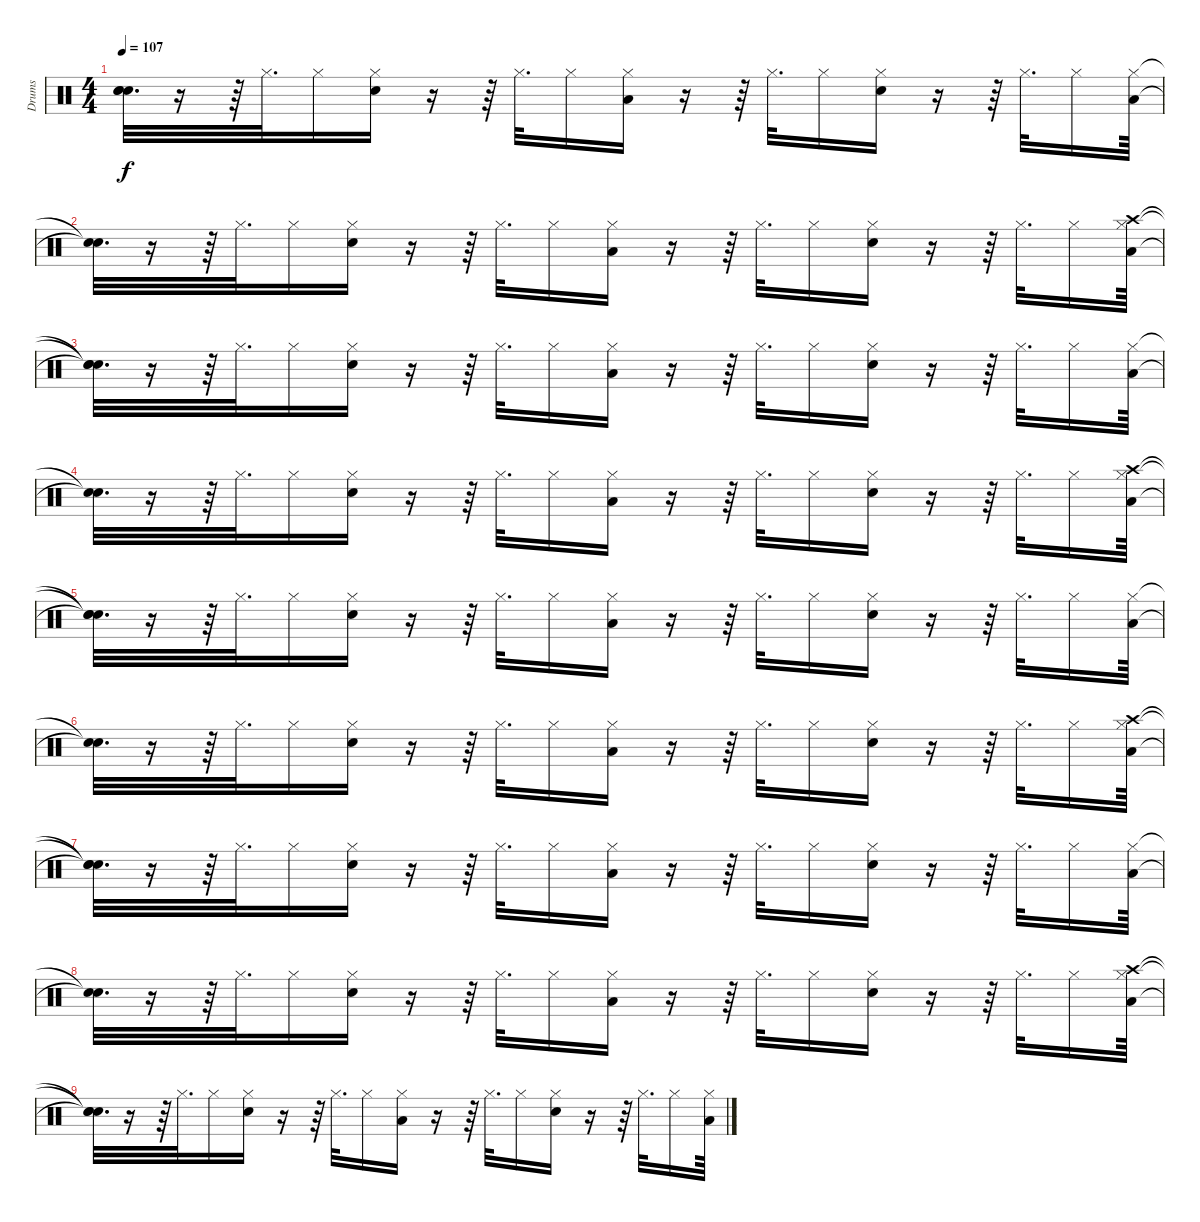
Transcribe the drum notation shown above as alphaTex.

\track ("Drums" "Drums") {instrument percussion}
\staff {score}
\articulation defaults
\ts (4 4)
\tempo 107
\clef neutral
\ks c
("Snare (hit)"{t} "Snare (hit)"{t} "Snare (hit)"{t}).32{d dy f} r.16 r.64 "Hi-Hat (closed)".32{d} "Hi-Hat (closed)".16 ("Hi-Hat (closed)" "Snare (hit) 2").16 r.16 r.64 "Hi-Hat (closed)".32{d} "Hi-Hat (closed)".16 ("Hi-Hat (closed)" "Low Tom (hit)").16 r.16 r.64 "Hi-Hat (closed)".32{d} "Hi-Hat (closed)".16 ("Hi-Hat (closed)" "Snare (hit) 2").16 r.16 r.64 "Hi-Hat (closed)".32{d} "Hi-Hat (closed)".16 ("Hi-Hat (closed)" "Low Tom (hit)").64 |
("Snare (hit)"{t} "Snare (hit)"{t}).32{d} r.16 r.64 "Hi-Hat (closed)".32{d} "Hi-Hat (closed)".16 ("Hi-Hat (closed)" "Snare (hit) 2").16 r.16 r.64 "Hi-Hat (closed)".32{d} "Hi-Hat (closed)".16 ("Hi-Hat (closed)" "Low Tom (hit)").16 r.16 r.64 "Hi-Hat (closed)".32{d} "Hi-Hat (closed)".16 ("Hi-Hat (closed)" "Snare (hit) 2").16 r.16 r.64 "Hi-Hat (closed)".32{d} "Hi-Hat (closed)".16 ("Hi-Hat (closed)" "Crash high (hit)" "Low Tom (hit)").64 |
("Snare (hit)"{t} "Snare (hit)"{t} "Snare (hit)"{t}).32{d} r.16 r.64 "Hi-Hat (closed)".32{d} "Hi-Hat (closed)".16 ("Hi-Hat (closed)" "Snare (hit) 2").16 r.16 r.64 "Hi-Hat (closed)".32{d} "Hi-Hat (closed)".16 ("Hi-Hat (closed)" "Low Tom (hit)").16 r.16 r.64 "Hi-Hat (closed)".32{d} "Hi-Hat (closed)".16 ("Hi-Hat (closed)" "Snare (hit) 2").16 r.16 r.64 "Hi-Hat (closed)".32{d} "Hi-Hat (closed)".16 ("Hi-Hat (closed)" "Low Tom (hit)").64 |
("Snare (hit)"{t} "Snare (hit)"{t}).32{d} r.16 r.64 "Hi-Hat (closed)".32{d} "Hi-Hat (closed)".16 ("Hi-Hat (closed)" "Snare (hit) 2").16 r.16 r.64 "Hi-Hat (closed)".32{d} "Hi-Hat (closed)".16 ("Hi-Hat (closed)" "Low Tom (hit)").16 r.16 r.64 "Hi-Hat (closed)".32{d} "Hi-Hat (closed)".16 ("Hi-Hat (closed)" "Snare (hit) 2").16 r.16 r.64 "Hi-Hat (closed)".32{d} "Hi-Hat (closed)".16 ("Hi-Hat (closed)" "Crash high (hit)" "Low Tom (hit)").64 |
("Snare (hit)"{t} "Snare (hit)"{t} "Snare (hit)"{t}).32{d} r.16 r.64 "Hi-Hat (closed)".32{d} "Hi-Hat (closed)".16 ("Hi-Hat (closed)" "Snare (hit) 2").16 r.16 r.64 "Hi-Hat (closed)".32{d} "Hi-Hat (closed)".16 ("Hi-Hat (closed)" "Low Tom (hit)").16 r.16 r.64 "Hi-Hat (closed)".32{d} "Hi-Hat (closed)".16 ("Hi-Hat (closed)" "Snare (hit) 2").16 r.16 r.64 "Hi-Hat (closed)".32{d} "Hi-Hat (closed)".16 ("Hi-Hat (closed)" "Low Tom (hit)").64 |
("Snare (hit)"{t} "Snare (hit)"{t}).32{d} r.16 r.64 "Hi-Hat (closed)".32{d} "Hi-Hat (closed)".16 ("Hi-Hat (closed)" "Snare (hit) 2").16 r.16 r.64 "Hi-Hat (closed)".32{d} "Hi-Hat (closed)".16 ("Hi-Hat (closed)" "Low Tom (hit)").16 r.16 r.64 "Hi-Hat (closed)".32{d} "Hi-Hat (closed)".16 ("Hi-Hat (closed)" "Snare (hit) 2").16 r.16 r.64 "Hi-Hat (closed)".32{d} "Hi-Hat (closed)".16 ("Hi-Hat (closed)" "Crash high (hit)" "Low Tom (hit)").64 |
("Snare (hit)"{t} "Snare (hit)"{t} "Snare (hit)"{t}).32{d} r.16 r.64 "Hi-Hat (closed)".32{d} "Hi-Hat (closed)".16 ("Hi-Hat (closed)" "Snare (hit) 2").16 r.16 r.64 "Hi-Hat (closed)".32{d} "Hi-Hat (closed)".16 ("Hi-Hat (closed)" "Low Tom (hit)").16 r.16 r.64 "Hi-Hat (closed)".32{d} "Hi-Hat (closed)".16 ("Hi-Hat (closed)" "Snare (hit) 2").16 r.16 r.64 "Hi-Hat (closed)".32{d} "Hi-Hat (closed)".16 ("Hi-Hat (closed)" "Low Tom (hit)").64 |
("Snare (hit)"{t} "Snare (hit)"{t}).32{d} r.16 r.64 "Hi-Hat (closed)".32{d} "Hi-Hat (closed)".16 ("Hi-Hat (closed)" "Snare (hit) 2").16 r.16 r.64 "Hi-Hat (closed)".32{d} "Hi-Hat (closed)".16 ("Hi-Hat (closed)" "Low Tom (hit)").16 r.16 r.64 "Hi-Hat (closed)".32{d} "Hi-Hat (closed)".16 ("Hi-Hat (closed)" "Snare (hit) 2").16 r.16 r.64 "Hi-Hat (closed)".32{d} "Hi-Hat (closed)".16 ("Hi-Hat (closed)" "Crash high (hit)" "Low Tom (hit)").64 |
("Snare (hit)"{t} "Snare (hit)"{t} "Snare (hit)"{t}).32{d} r.16 r.64 "Hi-Hat (closed)".32{d} "Hi-Hat (closed)".16 ("Hi-Hat (closed)" "Snare (hit) 2").16 r.16 r.64 "Hi-Hat (closed)".32{d} "Hi-Hat (closed)".16 ("Hi-Hat (closed)" "Low Tom (hit)").16 r.16 r.64 "Hi-Hat (closed)".32{d} "Hi-Hat (closed)".16 ("Hi-Hat (closed)" "Snare (hit) 2").16 r.16 r.64 "Hi-Hat (closed)".32{d} "Hi-Hat (closed)".16 ("Hi-Hat (closed)" "Low Tom (hit)").64
